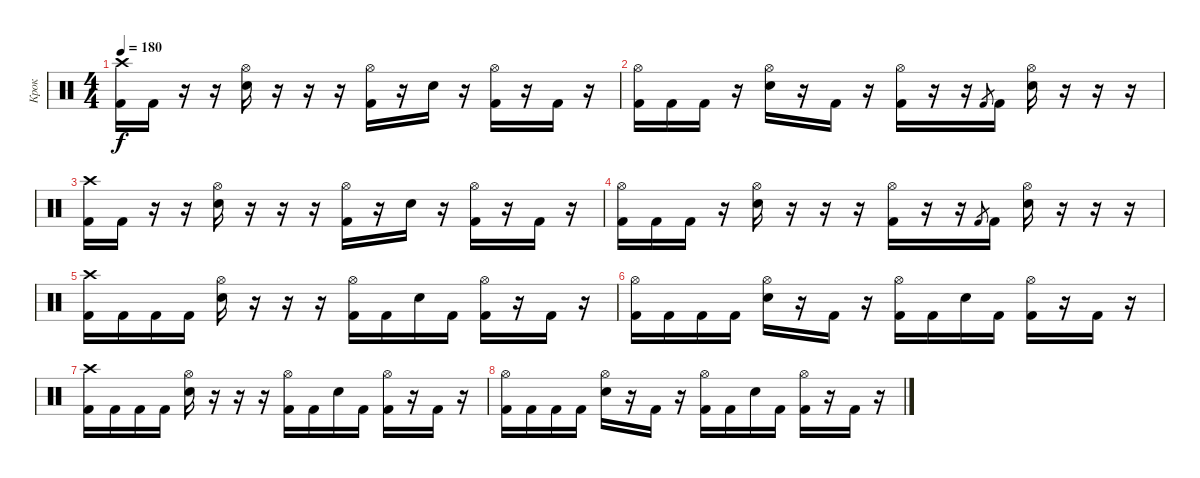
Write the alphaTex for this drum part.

\track ("Крок" "Крок") {instrument percussion}
\staff {score}
\articulation defaults
\ts (4 4)
\tempo 180
\clef neutral
\ks c
("Kick (hit) 2" "Crash high (hit)").16{dy f} "Kick (hit) 2".16 r.16 r.16 ("Electric Snare (hit)" "Hi-Hat (open)").16 r.16 r.16 r.16 ("Kick (hit) 2" "Hi-Hat (open)").16 r.16 "Electric Snare (hit)".16 r.16 ("Kick (hit) 2" "Hi-Hat (open)").16 r.16 "Kick (hit) 2".16 r.16 |
("Kick (hit) 2" "Hi-Hat (open)").16 "Kick (hit) 2".16 "Kick (hit) 2".16 r.16 ("Electric Snare (hit)" "Hi-Hat (open)").16 r.16 "Kick (hit) 2".16 r.16 ("Kick (hit) 2" "Hi-Hat (open)").16 r.16 r.16 "Kick (hit) 2".8{gr} "Kick (hit) 2".16 ("Electric Snare (hit)" "Hi-Hat (open)").16 r.16 r.16 r.16 |
("Kick (hit) 2" "Crash high (hit)").16 "Kick (hit) 2".16 r.16 r.16 ("Electric Snare (hit)" "Hi-Hat (open)").16 r.16 r.16 r.16 ("Kick (hit) 2" "Hi-Hat (open)").16 r.16 "Electric Snare (hit)".16 r.16 ("Kick (hit) 2" "Hi-Hat (open)").16 r.16 "Kick (hit) 2".16 r.16 |
("Kick (hit) 2" "Hi-Hat (open)").16 "Kick (hit) 2".16 "Kick (hit) 2".16 r.16 ("Electric Snare (hit)" "Hi-Hat (open)").16 r.16 r.16 r.16 ("Kick (hit) 2" "Hi-Hat (open)").16 r.16 r.16 "Kick (hit) 2".8{gr} "Kick (hit) 2".16 ("Electric Snare (hit)" "Hi-Hat (open)").16 r.16 r.16 r.16 |
("Kick (hit) 2" "Crash high (hit)").16 "Kick (hit) 2".16 "Kick (hit) 2".16 "Kick (hit) 2".16 ("Electric Snare (hit)" "Hi-Hat (open)").16 r.16 r.16 r.16 ("Kick (hit) 2" "Hi-Hat (open)").16 "Kick (hit) 2".16 "Electric Snare (hit)".16 "Kick (hit) 2".16 ("Kick (hit) 2" "Hi-Hat (open)").16 r.16 "Kick (hit) 2".16 r.16 |
("Kick (hit) 2" "Hi-Hat (open)").16 "Kick (hit) 2".16 "Kick (hit) 2".16 "Kick (hit) 2".16 ("Electric Snare (hit)" "Hi-Hat (open)").16 r.16 "Kick (hit) 2".16 r.16 ("Kick (hit) 2" "Hi-Hat (open)").16 "Kick (hit) 2".16 "Electric Snare (hit)".16 "Kick (hit) 2".16 ("Kick (hit) 2" "Hi-Hat (open)").16 r.16 "Kick (hit) 2".16 r.16 |
("Kick (hit) 2" "Crash high (hit)").16 "Kick (hit) 2".16 "Kick (hit) 2".16 "Kick (hit) 2".16 ("Electric Snare (hit)" "Hi-Hat (open)").16 r.16 r.16 r.16 ("Kick (hit) 2" "Hi-Hat (open)").16 "Kick (hit) 2".16 "Electric Snare (hit)".16 "Kick (hit) 2".16 ("Kick (hit) 2" "Hi-Hat (open)").16 r.16 "Kick (hit) 2".16 r.16 |
("Kick (hit) 2" "Hi-Hat (open)").16 "Kick (hit) 2".16 "Kick (hit) 2".16 "Kick (hit) 2".16 ("Electric Snare (hit)" "Hi-Hat (open)").16 r.16 "Kick (hit) 2".16 r.16 ("Kick (hit) 2" "Hi-Hat (open)").16 "Kick (hit) 2".16 "Electric Snare (hit)".16 "Kick (hit) 2".16 ("Kick (hit) 2" "Hi-Hat (open)").16 r.16 "Kick (hit) 2".16 r.16
